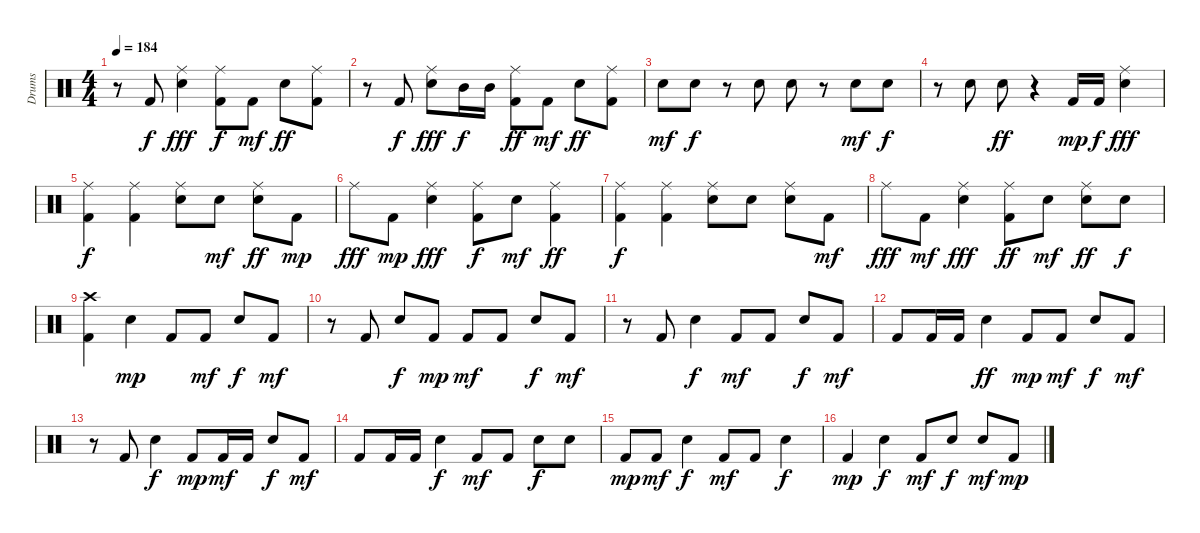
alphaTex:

\track ("Drums" "Drums") {instrument percussion}
\staff {score}
\articulation defaults
\ts (4 4)
\tempo 184
\clef neutral
\ks c
r.8{dy ff} "Kick (hit) 2".8{dy f} ("Snare (hit) 2" "Ride (middle)").4{dy fff} ("Kick (hit) 2" "Ride (middle)").8{dy f} "Kick (hit) 2".8{dy mf} "Snare (hit) 2".8{dy ff} ("Kick (hit) 2" "Ride (middle)").8 |
r.8 "Kick (hit) 2".8{dy f} ("Snare (hit) 2" "Ride (middle)").8{dy fff} "Mid Tom (hit)".16{dy f} "Mid Tom (hit)".16 ("Kick (hit) 2" "Ride (middle)").8{dy ff} "Kick (hit) 2".8{dy mf} "Snare (hit) 2".8{dy ff} ("Kick (hit) 2" "Ride (middle)").8 |
"Electric Snare (hit)".8{dy mf} "Electric Snare (hit)".8{dy f} r.8 "Electric Snare (hit)".8 "Electric Snare (hit)".8 r.8 "Electric Snare (hit)".8{dy mf} "Electric Snare (hit)".8{dy f} |
r.8 "Electric Snare (hit)".8 "Electric Snare (hit)".8{dy ff} r.4 "Kick (hit) 2".16{dy mp} "Kick (hit) 2".16{dy f} ("Snare (hit) 2" "Ride (middle)").4{dy fff} |
("Kick (hit) 2" "Ride (middle)").4{dy f} ("Kick (hit) 2" "Ride (middle)").4 ("Snare (hit) 2" "Ride (middle)").8 "Snare (hit) 2".8{dy mf} ("Snare (hit) 2" "Ride (middle)").8{dy ff} "Kick (hit) 2".8{dy mp} |
"Ride (middle)".8{dy fff} "Kick (hit) 2".8{dy mp} ("Snare (hit) 2" "Ride (middle)").4{dy fff} ("Kick (hit) 2" "Ride (middle)").8{dy f} "Snare (hit) 2".8{dy mf} ("Kick (hit) 2" "Ride (middle)").4{dy ff} |
("Kick (hit) 2" "Ride (middle)").4{dy f} ("Kick (hit) 2" "Ride (middle)").4 ("Snare (hit) 2" "Ride (middle)").8 "Snare (hit) 2".8 ("Snare (hit) 2" "Ride (middle)").8 "Kick (hit) 2".8{dy mf} |
"Ride (middle)".8{dy fff} "Kick (hit) 2".8{dy mf} ("Snare (hit) 2" "Ride (middle)").4{dy fff} ("Kick (hit) 2" "Ride (middle)").8{dy ff} "Snare (hit) 2".8{dy mf} ("Snare (hit) 2" "Ride (middle)").8{dy ff} "Snare (hit) 2".8{dy f} |
("Kick (hit) 2" "Crash high (hit)").4 "Snare (hit) 2".4{dy mp} "Kick (hit) 2".8 "Kick (hit) 2".8{dy mf} "Snare (hit) 2".8{dy f} "Kick (hit) 2".8{dy mf} |
r.8 "Kick (hit) 2".8 "Snare (hit) 2".8{dy f} "Kick (hit) 2".8{dy mp} "Kick (hit) 2".8{dy mf} "Kick (hit) 2".8 "Snare (hit) 2".8{dy f} "Kick (hit) 2".8{dy mf} |
r.8 "Kick (hit) 2".8 "Snare (hit) 2".4{dy f} "Kick (hit) 2".8{dy mf} "Kick (hit) 2".8 "Snare (hit) 2".8{dy f} "Kick (hit) 2".8{dy mf} |
"Kick (hit) 2".8 "Kick (hit) 2".16 "Kick (hit) 2".16 "Snare (hit) 2".4{dy ff} "Kick (hit) 2".8{dy mp} "Kick (hit) 2".8{dy mf} "Snare (hit) 2".8{dy f} "Kick (hit) 2".8{dy mf} |
r.8 "Kick (hit) 2".8 "Snare (hit) 2".4{dy f} "Kick (hit) 2".8{dy mp} "Kick (hit) 2".16{dy mf} "Kick (hit) 2".16 "Snare (hit) 2".8{dy f} "Kick (hit) 2".8{dy mf} |
"Kick (hit) 2".8 "Kick (hit) 2".16 "Kick (hit) 2".16 "Snare (hit) 2".4{dy f} "Kick (hit) 2".8{dy mf} "Kick (hit) 2".8 "Snare (hit) 2".8{dy f} "Snare (hit) 2".8 |
"Kick (hit) 2".8{dy mp} "Kick (hit) 2".8{dy mf} "Snare (hit) 2".4{dy f} "Kick (hit) 2".8{dy mf} "Kick (hit) 2".8 "Snare (hit) 2".4{dy f} |
"Kick (hit) 2".4{dy mp} "Snare (hit) 2".4{dy f} "Kick (hit) 2".8{dy mf} "Snare (hit) 2".8{dy f} "Snare (hit) 2".8{dy mf} "Kick (hit) 2".8{dy mp}
